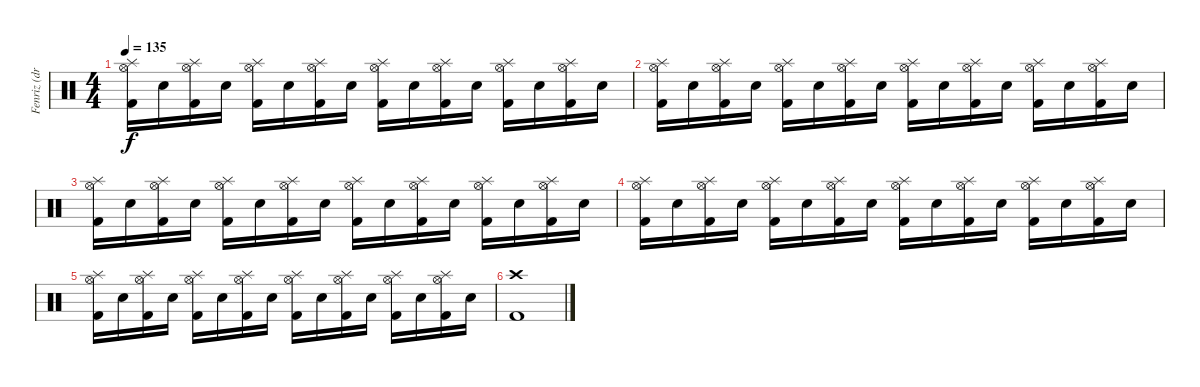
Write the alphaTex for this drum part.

\track ("Fenriz (drums)" "Fenriz (dr") {instrument percussion}
\staff {score}
\articulation defaults
\ts (4 4)
\tempo 135
\clef neutral
\ks c
("Hi-Hat (open)" "Splash (hit)" "Kick (hit) 2").16{dy f} "Electric Snare (hit)".16 ("Hi-Hat (open)" "Splash (hit)" "Kick (hit) 2").16 "Electric Snare (hit)".16 ("Hi-Hat (open)" "Splash (hit)" "Kick (hit) 2").16 "Electric Snare (hit)".16 ("Hi-Hat (open)" "Splash (hit)" "Kick (hit) 2").16 "Electric Snare (hit)".16 ("Hi-Hat (open)" "Splash (hit)" "Kick (hit) 2").16 "Electric Snare (hit)".16 ("Hi-Hat (open)" "Splash (hit)" "Kick (hit) 2").16 "Electric Snare (hit)".16 ("Hi-Hat (open)" "Splash (hit)" "Kick (hit) 2").16 "Electric Snare (hit)".16 ("Hi-Hat (open)" "Splash (hit)" "Kick (hit) 2").16 "Electric Snare (hit)".16 |
("Hi-Hat (open)" "Splash (hit)" "Kick (hit) 2").16 "Electric Snare (hit)".16 ("Hi-Hat (open)" "Splash (hit)" "Kick (hit) 2").16 "Electric Snare (hit)".16 ("Hi-Hat (open)" "Splash (hit)" "Kick (hit) 2").16 "Electric Snare (hit)".16 ("Hi-Hat (open)" "Splash (hit)" "Kick (hit) 2").16 "Electric Snare (hit)".16 ("Hi-Hat (open)" "Splash (hit)" "Kick (hit) 2").16 "Electric Snare (hit)".16 ("Hi-Hat (open)" "Splash (hit)" "Kick (hit) 2").16 "Electric Snare (hit)".16 ("Hi-Hat (open)" "Splash (hit)" "Kick (hit) 2").16 "Electric Snare (hit)".16 ("Hi-Hat (open)" "Splash (hit)" "Kick (hit) 2").16 "Electric Snare (hit)".16 |
("Hi-Hat (open)" "Splash (hit)" "Kick (hit) 2").16 "Electric Snare (hit)".16 ("Hi-Hat (open)" "Splash (hit)" "Kick (hit) 2").16 "Electric Snare (hit)".16 ("Hi-Hat (open)" "Splash (hit)" "Kick (hit) 2").16 "Electric Snare (hit)".16 ("Hi-Hat (open)" "Splash (hit)" "Kick (hit) 2").16 "Electric Snare (hit)".16 ("Hi-Hat (open)" "Splash (hit)" "Kick (hit) 2").16 "Electric Snare (hit)".16 ("Hi-Hat (open)" "Splash (hit)" "Kick (hit) 2").16 "Electric Snare (hit)".16 ("Hi-Hat (open)" "Splash (hit)" "Kick (hit) 2").16 "Electric Snare (hit)".16 ("Hi-Hat (open)" "Splash (hit)" "Kick (hit) 2").16 "Electric Snare (hit)".16 |
("Hi-Hat (open)" "Splash (hit)" "Kick (hit) 2").16 "Electric Snare (hit)".16 ("Hi-Hat (open)" "Splash (hit)" "Kick (hit) 2").16 "Electric Snare (hit)".16 ("Hi-Hat (open)" "Splash (hit)" "Kick (hit) 2").16 "Electric Snare (hit)".16 ("Hi-Hat (open)" "Splash (hit)" "Kick (hit) 2").16 "Electric Snare (hit)".16 ("Hi-Hat (open)" "Splash (hit)" "Kick (hit) 2").16 "Electric Snare (hit)".16 ("Hi-Hat (open)" "Splash (hit)" "Kick (hit) 2").16 "Electric Snare (hit)".16 ("Hi-Hat (open)" "Splash (hit)" "Kick (hit) 2").16 "Electric Snare (hit)".16 ("Hi-Hat (open)" "Splash (hit)" "Kick (hit) 2").16 "Electric Snare (hit)".16 |
("Hi-Hat (open)" "Splash (hit)" "Kick (hit) 2").16 "Electric Snare (hit)".16 ("Hi-Hat (open)" "Splash (hit)" "Kick (hit) 2").16 "Electric Snare (hit)".16 ("Hi-Hat (open)" "Splash (hit)" "Kick (hit) 2").16 "Electric Snare (hit)".16 ("Hi-Hat (open)" "Splash (hit)" "Kick (hit) 2").16 "Electric Snare (hit)".16 ("Hi-Hat (open)" "Splash (hit)" "Kick (hit) 2").16 "Electric Snare (hit)".16 ("Hi-Hat (open)" "Splash (hit)" "Kick (hit) 2").16 "Electric Snare (hit)".16 ("Hi-Hat (open)" "Splash (hit)" "Kick (hit) 2").16 "Electric Snare (hit)".16 ("Hi-Hat (open)" "Splash (hit)" "Kick (hit) 2").16 "Electric Snare (hit)".16 |
("Crash high (hit)" "Kick (hit) 2").1
